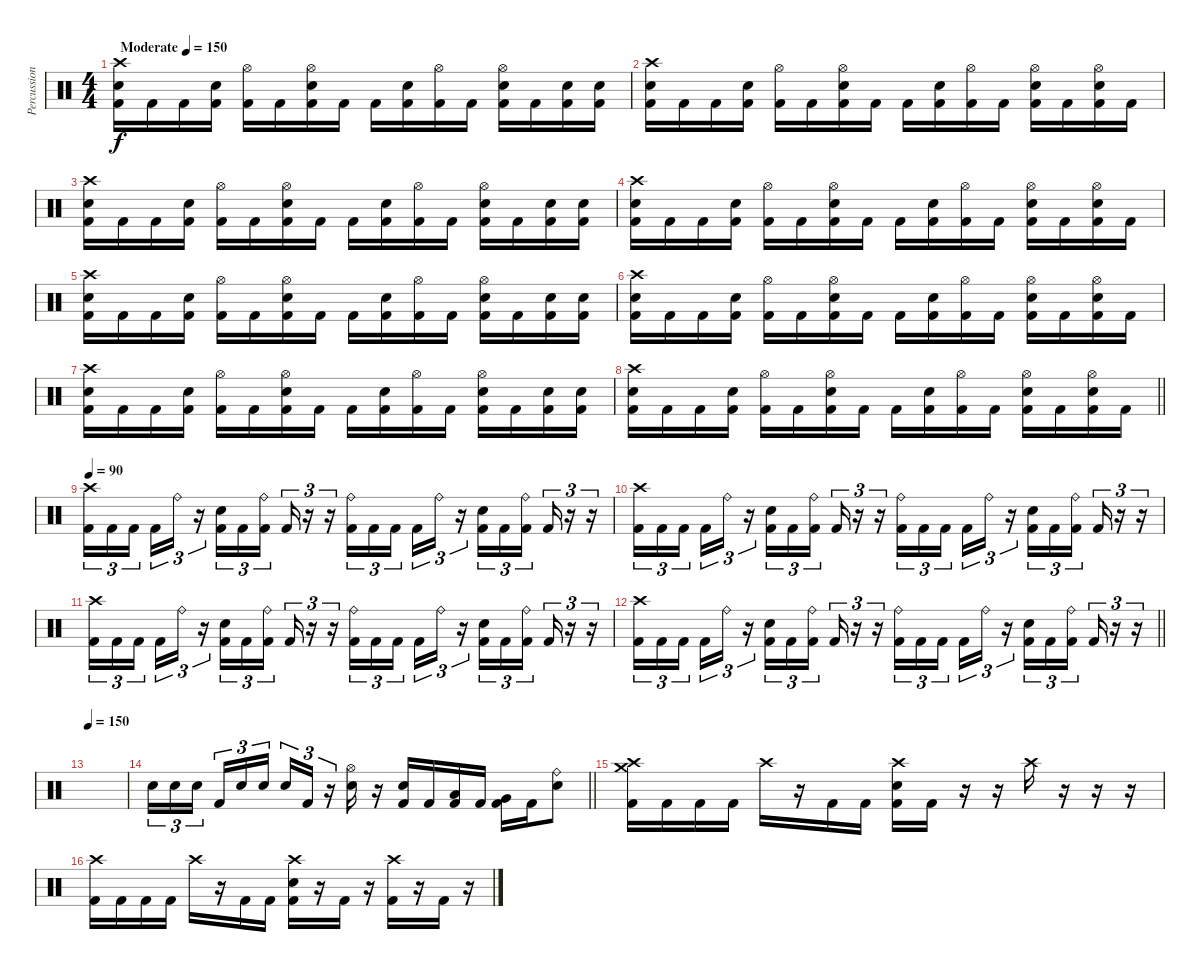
\track ("Percussion" "Percussion") {instrument percussion}
\staff {score}
\articulation defaults
\ts (4 4)
\tempo (150 "Moderate")
\clef neutral
\ks c
("Crash high (hit)" "Snare (hit) 2" "Kick (hit) 2").16{dy f} "Kick (hit) 2".16 "Kick (hit) 2".16 ("Snare (hit) 2" "Kick (hit) 2").16 ("Hi-Hat (open)" "Kick (hit) 2").16 "Kick (hit) 2".16 ("Hi-Hat (open)" "Snare (hit) 2" "Kick (hit) 2").16 "Kick (hit) 2".16 "Kick (hit) 2".16 ("Snare (hit) 2" "Kick (hit) 2").16 ("Hi-Hat (open)" "Kick (hit) 2").16 "Kick (hit) 2".16 ("Hi-Hat (open)" "Snare (hit) 2" "Kick (hit) 2").16 "Kick (hit) 2".16 ("Snare (hit) 2" "Kick (hit) 2").16 ("Snare (hit) 2" "Kick (hit) 2").16 |
("Crash high (hit)" "Snare (hit) 2" "Kick (hit) 2").16 "Kick (hit) 2".16 "Kick (hit) 2".16 ("Snare (hit) 2" "Kick (hit) 2").16 ("Hi-Hat (open)" "Kick (hit) 2").16 "Kick (hit) 2".16 ("Hi-Hat (open)" "Snare (hit) 2" "Kick (hit) 2").16 "Kick (hit) 2".16 "Kick (hit) 2".16 ("Snare (hit) 2" "Kick (hit) 2").16 ("Hi-Hat (open)" "Kick (hit) 2").16 "Kick (hit) 2".16 ("Hi-Hat (open)" "Snare (hit) 2" "Kick (hit) 2").16 "Kick (hit) 2".16 ("Hi-Hat (open)" "Snare (hit) 2" "Kick (hit) 2").16 "Kick (hit) 2".16 |
("Crash high (hit)" "Snare (hit) 2" "Kick (hit) 2").16 "Kick (hit) 2".16 "Kick (hit) 2".16 ("Snare (hit) 2" "Kick (hit) 2").16 ("Hi-Hat (open)" "Kick (hit) 2").16 "Kick (hit) 2".16 ("Hi-Hat (open)" "Snare (hit) 2" "Kick (hit) 2").16 "Kick (hit) 2".16 "Kick (hit) 2".16 ("Snare (hit) 2" "Kick (hit) 2").16 ("Hi-Hat (open)" "Kick (hit) 2").16 "Kick (hit) 2".16 ("Hi-Hat (open)" "Snare (hit) 2" "Kick (hit) 2").16 "Kick (hit) 2".16 ("Snare (hit) 2" "Kick (hit) 2").16 ("Snare (hit) 2" "Kick (hit) 2").16 |
("Crash high (hit)" "Snare (hit) 2" "Kick (hit) 2").16 "Kick (hit) 2".16 "Kick (hit) 2".16 ("Snare (hit) 2" "Kick (hit) 2").16 ("Hi-Hat (open)" "Kick (hit) 2").16 "Kick (hit) 2".16 ("Hi-Hat (open)" "Snare (hit) 2" "Kick (hit) 2").16 "Kick (hit) 2".16 "Kick (hit) 2".16 ("Snare (hit) 2" "Kick (hit) 2").16 ("Hi-Hat (open)" "Kick (hit) 2").16 "Kick (hit) 2".16 ("Hi-Hat (open)" "Snare (hit) 2" "Kick (hit) 2").16 "Kick (hit) 2".16 ("Hi-Hat (open)" "Snare (hit) 2" "Kick (hit) 2").16 "Kick (hit) 2".16 |
("Crash high (hit)" "Snare (hit) 2" "Kick (hit) 2").16 "Kick (hit) 2".16 "Kick (hit) 2".16 ("Snare (hit) 2" "Kick (hit) 2").16 ("Hi-Hat (open)" "Kick (hit) 2").16 "Kick (hit) 2".16 ("Hi-Hat (open)" "Snare (hit) 2" "Kick (hit) 2").16 "Kick (hit) 2".16 "Kick (hit) 2".16 ("Snare (hit) 2" "Kick (hit) 2").16 ("Hi-Hat (open)" "Kick (hit) 2").16 "Kick (hit) 2".16 ("Hi-Hat (open)" "Snare (hit) 2" "Kick (hit) 2").16 "Kick (hit) 2".16 ("Snare (hit) 2" "Kick (hit) 2").16 ("Snare (hit) 2" "Kick (hit) 2").16 |
("Crash high (hit)" "Snare (hit) 2" "Kick (hit) 2").16 "Kick (hit) 2".16 "Kick (hit) 2".16 ("Snare (hit) 2" "Kick (hit) 2").16 ("Hi-Hat (open)" "Kick (hit) 2").16 "Kick (hit) 2".16 ("Hi-Hat (open)" "Snare (hit) 2" "Kick (hit) 2").16 "Kick (hit) 2".16 "Kick (hit) 2".16 ("Snare (hit) 2" "Kick (hit) 2").16 ("Hi-Hat (open)" "Kick (hit) 2").16 "Kick (hit) 2".16 ("Hi-Hat (open)" "Snare (hit) 2" "Kick (hit) 2").16 "Kick (hit) 2".16 ("Hi-Hat (open)" "Snare (hit) 2" "Kick (hit) 2").16 "Kick (hit) 2".16 |
("Crash high (hit)" "Snare (hit) 2" "Kick (hit) 2").16 "Kick (hit) 2".16 "Kick (hit) 2".16 ("Snare (hit) 2" "Kick (hit) 2").16 ("Hi-Hat (open)" "Kick (hit) 2").16 "Kick (hit) 2".16 ("Hi-Hat (open)" "Snare (hit) 2" "Kick (hit) 2").16 "Kick (hit) 2".16 "Kick (hit) 2".16 ("Snare (hit) 2" "Kick (hit) 2").16 ("Hi-Hat (open)" "Kick (hit) 2").16 "Kick (hit) 2".16 ("Hi-Hat (open)" "Snare (hit) 2" "Kick (hit) 2").16 "Kick (hit) 2".16 ("Snare (hit) 2" "Kick (hit) 2").16 ("Snare (hit) 2" "Kick (hit) 2").16 |
\barLineRight lightlight
("Crash high (hit)" "Snare (hit) 2" "Kick (hit) 2").16 "Kick (hit) 2".16 "Kick (hit) 2".16 ("Snare (hit) 2" "Kick (hit) 2").16 ("Hi-Hat (open)" "Kick (hit) 2").16 "Kick (hit) 2".16 ("Hi-Hat (open)" "Snare (hit) 2" "Kick (hit) 2").16 "Kick (hit) 2".16 "Kick (hit) 2".16 ("Snare (hit) 2" "Kick (hit) 2").16 ("Hi-Hat (open)" "Kick (hit) 2").16 "Kick (hit) 2".16 ("Hi-Hat (open)" "Snare (hit) 2" "Kick (hit) 2").16 "Kick (hit) 2".16 ("Hi-Hat (open)" "Snare (hit) 2" "Kick (hit) 2").16 "Kick (hit) 2".16 |
\section ("" "")
\tempo 90
("Crash high (hit)" "Kick (hit) 2").16{tu (3 2)} "Kick (hit) 2".16{tu (3 2)} "Kick (hit) 2".16{tu (3 2) beam splitsecondary} "Kick (hit) 2".16{tu (3 2)} "Ride (bell)".16{tu (3 2)} r.16{tu (3 2)} ("Snare (hit) 2" "Kick (hit) 2").16{tu (3 2)} "Kick (hit) 2".16{tu (3 2)} ("Ride (bell)" "Kick (hit) 2").16{tu (3 2) beam splitsecondary} "Kick (hit) 2".16{tu (3 2)} r.16{tu (3 2)} r.16{tu (3 2)} ("Ride (bell)" "Kick (hit) 2").16{tu (3 2)} "Kick (hit) 2".16{tu (3 2)} "Kick (hit) 2".16{tu (3 2) beam splitsecondary} "Kick (hit) 2".16{tu (3 2)} "Ride (bell)".16{tu (3 2)} r.16{tu (3 2)} ("Snare (hit) 2" "Kick (hit) 2").16{tu (3 2)} "Kick (hit) 2".16{tu (3 2)} ("Ride (bell)" "Kick (hit) 2").16{tu (3 2) beam splitsecondary} "Kick (hit) 2".16{tu (3 2)} r.16{tu (3 2)} r.16{tu (3 2)} |
("Crash high (hit)" "Kick (hit) 2").16{tu (3 2)} "Kick (hit) 2".16{tu (3 2)} "Kick (hit) 2".16{tu (3 2) beam splitsecondary} "Kick (hit) 2".16{tu (3 2)} "Ride (bell)".16{tu (3 2)} r.16{tu (3 2)} ("Snare (hit) 2" "Kick (hit) 2").16{tu (3 2)} "Kick (hit) 2".16{tu (3 2)} ("Ride (bell)" "Kick (hit) 2").16{tu (3 2) beam splitsecondary} "Kick (hit) 2".16{tu (3 2)} r.16{tu (3 2)} r.16{tu (3 2)} ("Ride (bell)" "Kick (hit) 2").16{tu (3 2)} "Kick (hit) 2".16{tu (3 2)} "Kick (hit) 2".16{tu (3 2) beam splitsecondary} "Kick (hit) 2".16{tu (3 2)} "Ride (bell)".16{tu (3 2)} r.16{tu (3 2)} ("Snare (hit) 2" "Kick (hit) 2").16{tu (3 2)} "Kick (hit) 2".16{tu (3 2)} ("Ride (bell)" "Kick (hit) 2").16{tu (3 2) beam splitsecondary} "Kick (hit) 2".16{tu (3 2)} r.16{tu (3 2)} r.16{tu (3 2)} |
("Crash high (hit)" "Kick (hit) 2").16{tu (3 2)} "Kick (hit) 2".16{tu (3 2)} "Kick (hit) 2".16{tu (3 2) beam splitsecondary} "Kick (hit) 2".16{tu (3 2)} "Ride (bell)".16{tu (3 2)} r.16{tu (3 2)} ("Snare (hit) 2" "Kick (hit) 2").16{tu (3 2)} "Kick (hit) 2".16{tu (3 2)} ("Ride (bell)" "Kick (hit) 2").16{tu (3 2) beam splitsecondary} "Kick (hit) 2".16{tu (3 2)} r.16{tu (3 2)} r.16{tu (3 2)} ("Ride (bell)" "Kick (hit) 2").16{tu (3 2)} "Kick (hit) 2".16{tu (3 2)} "Kick (hit) 2".16{tu (3 2) beam splitsecondary} "Kick (hit) 2".16{tu (3 2)} "Ride (bell)".16{tu (3 2)} r.16{tu (3 2)} ("Snare (hit) 2" "Kick (hit) 2").16{tu (3 2)} "Kick (hit) 2".16{tu (3 2)} ("Ride (bell)" "Kick (hit) 2").16{tu (3 2) beam splitsecondary} "Kick (hit) 2".16{tu (3 2)} r.16{tu (3 2)} r.16{tu (3 2)} |
\barLineRight lightlight
("Crash high (hit)" "Kick (hit) 2").16{tu (3 2)} "Kick (hit) 2".16{tu (3 2)} "Kick (hit) 2".16{tu (3 2) beam splitsecondary} "Kick (hit) 2".16{tu (3 2)} "Ride (bell)".16{tu (3 2)} r.16{tu (3 2)} ("Snare (hit) 2" "Kick (hit) 2").16{tu (3 2)} "Kick (hit) 2".16{tu (3 2)} ("Ride (bell)" "Kick (hit) 2").16{tu (3 2) beam splitsecondary} "Kick (hit) 2".16{tu (3 2)} r.16{tu (3 2)} r.16{tu (3 2)} ("Ride (bell)" "Kick (hit) 2").16{tu (3 2)} "Kick (hit) 2".16{tu (3 2)} "Kick (hit) 2".16{tu (3 2) beam splitsecondary} "Kick (hit) 2".16{tu (3 2)} "Ride (bell)".16{tu (3 2)} r.16{tu (3 2)} ("Snare (hit) 2" "Kick (hit) 2").16{tu (3 2)} "Kick (hit) 2".16{tu (3 2)} ("Ride (bell)" "Kick (hit) 2").16{tu (3 2) beam splitsecondary} "Kick (hit) 2".16{tu (3 2)} r.16{tu (3 2)} r.16{tu (3 2)} |
\section ("" "")
\tempo 150
|
\barLineRight lightlight "Snare (hit) 2".16{tu (3 2)} "Snare (hit) 2".16{tu (3 2)} "Snare (hit) 2".16{tu (3 2) beam splitsecondary} "Kick (hit) 2".16{tu (3 2)} "Snare (hit) 2".16{tu (3 2)} "Snare (hit) 2".16{tu (3 2)} "Snare (hit) 2".16{tu (3 2)} "Kick (hit) 2".16{tu (3 2)}
r.16{tu (3 2)} ("Hi-Hat (open)" "Snare (hit) 2").16 r.16 ("Snare (hit) 2" "Kick (hit) 2").16 "Kick (hit) 2".16 ("Low Tom (hit)" "Kick (hit) 2").16 "Kick (hit) 2".16 ("Very Low Tom (hit)" "Kick (hit) 2").16 "Kick (hit) 2".16 ("Ride (bell)" "Snare (hit) 2").8 |
\section ("" "")
("Crash high (hit)" "Crash medium (hit)" "Kick (hit) 2").16 "Kick (hit) 2".16 "Kick (hit) 2".16 "Kick (hit) 2".16 "Crash high (hit)".16 r.16 "Kick (hit) 2".16 "Kick (hit) 2".16 ("Crash high (hit)" "Snare (hit) 2" "Kick (hit) 2").16 "Kick (hit) 2".16 r.16 r.16 "Crash high (hit)".16 r.16 r.16 r.16 |
("Crash high (hit)" "Kick (hit) 2").16 "Kick (hit) 2".16 "Kick (hit) 2".16 "Kick (hit) 2".16 "Crash high (hit)".16 r.16 "Kick (hit) 2".16 "Kick (hit) 2".16 ("Crash high (hit)" "Snare (hit) 2" "Kick (hit) 2").16 r.16 "Kick (hit) 2".16 r.16 ("Crash high (hit)" "Kick (hit) 2").16 r.16 "Kick (hit) 2".16 r.16
